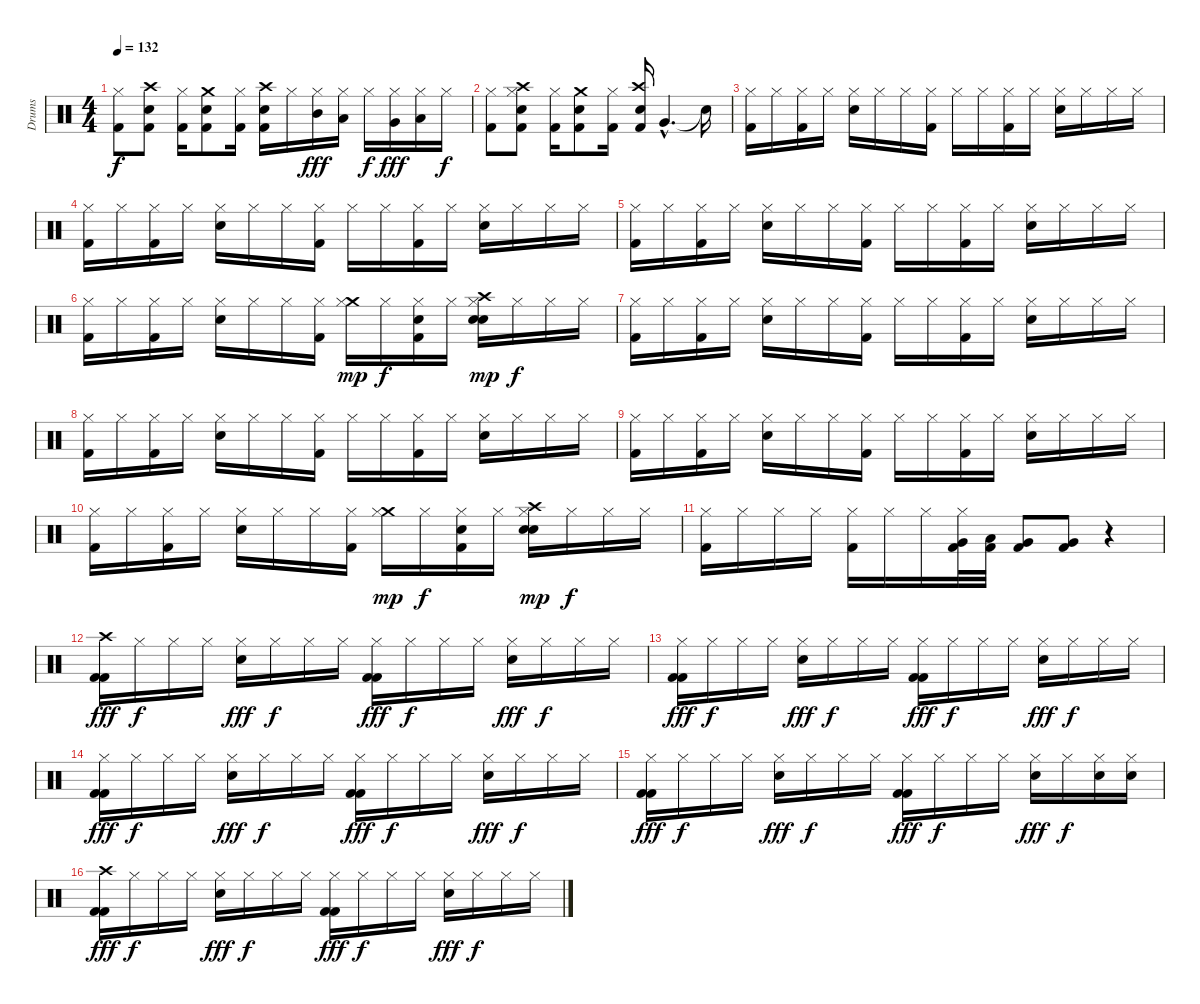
\track ("Drums" "Drums") {instrument percussion}
\staff {score}
\articulation defaults
\ts (4 4)
\tempo 132
\clef neutral
\ks c
("Kick (hit) 2" "Hi-Hat (closed)").8{dy f} ("Kick (hit) 2" "Crash high (hit)" "Snare (hit) 2").8 ("Kick (hit) 2" "Hi-Hat (closed)").16 ("Kick (hit) 2" "Crash medium (hit)" "Snare (hit) 2").8 ("Kick (hit) 2" "Hi-Hat (closed)").16 ("Kick (hit) 2" "Crash high (hit)" "Snare (hit) 2").16 "Hi-Hat (closed)".16 ("Mid Tom (hit)" "Hi-Hat (closed)").16{dy fff} ("Low Tom (hit)" "Hi-Hat (closed)").16 "Hi-Hat (closed)".16{dy f} ("Very Low Tom (hit)" "Hi-Hat (closed)").16{dy fff} ("Low Floor Tom (hit)" "Hi-Hat (closed)").16 "Hi-Hat (closed)".16{dy f} |
("Kick (hit) 2" "Hi-Hat (closed)").8 ("Kick (hit) 2" "Crash high (hit)" "Hi-Hat (closed)" "Snare (hit) 2").8 ("Kick (hit) 2" "Hi-Hat (closed)").16 ("Kick (hit) 2" "Crash medium (hit)" "Snare (hit) 2").8 ("Kick (hit) 2" "Hi-Hat (closed)").16 ("Kick (hit) 2" "Crash high (hit)" "Snare (hit) 2").16 "Very Low Tom (hit)"{hac}.4{d} "Snare (hit)"{t}.16 |
("Kick (hit) 2" "Hi-Hat (closed)").16 "Hi-Hat (closed)".16 ("Kick (hit) 2" "Hi-Hat (closed)").16 "Hi-Hat (closed)".16 ("Hi-Hat (closed)" "Snare (hit) 2").16 "Hi-Hat (closed)".16 "Hi-Hat (closed)".16 ("Kick (hit) 2" "Hi-Hat (closed)").16 "Hi-Hat (closed)".16 "Hi-Hat (closed)".16 ("Kick (hit) 2" "Hi-Hat (closed)").16 "Hi-Hat (closed)".16 ("Hi-Hat (closed)" "Snare (hit) 2").16 "Hi-Hat (closed)".16 "Hi-Hat (closed)".16 "Hi-Hat (closed)".16 |
("Kick (hit) 2" "Hi-Hat (closed)").16 "Hi-Hat (closed)".16 ("Kick (hit) 2" "Hi-Hat (closed)").16 "Hi-Hat (closed)".16 ("Hi-Hat (closed)" "Snare (hit) 2").16 "Hi-Hat (closed)".16 "Hi-Hat (closed)".16 ("Kick (hit) 2" "Hi-Hat (closed)").16 "Hi-Hat (closed)".16 "Hi-Hat (closed)".16 ("Kick (hit) 2" "Hi-Hat (closed)").16 "Hi-Hat (closed)".16 ("Hi-Hat (closed)" "Snare (hit) 2").16 "Hi-Hat (closed)".16 "Hi-Hat (closed)".16 "Hi-Hat (closed)".16 |
("Kick (hit) 2" "Hi-Hat (closed)").16 "Hi-Hat (closed)".16 ("Kick (hit) 2" "Hi-Hat (closed)").16 "Hi-Hat (closed)".16 ("Hi-Hat (closed)" "Snare (hit) 2").16 "Hi-Hat (closed)".16 "Hi-Hat (closed)".16 ("Kick (hit) 2" "Hi-Hat (closed)").16 "Hi-Hat (closed)".16 "Hi-Hat (closed)".16 ("Kick (hit) 2" "Hi-Hat (closed)").16 "Hi-Hat (closed)".16 ("Hi-Hat (closed)" "Snare (hit) 2").16 "Hi-Hat (closed)".16 "Hi-Hat (closed)".16 "Hi-Hat (closed)".16 |
("Kick (hit) 2" "Hi-Hat (closed)").16 "Hi-Hat (closed)".16 ("Kick (hit) 2" "Hi-Hat (closed)").16 "Hi-Hat (closed)".16 ("Hi-Hat (closed)" "Snare (hit) 2").16 "Hi-Hat (closed)".16 "Hi-Hat (closed)".16 ("Kick (hit) 2" "Hi-Hat (closed)").16 ("Crash medium (hit)" "Hi-Hat (closed)").16{dy mp} "Hi-Hat (closed)".16{dy f} ("Kick (hit) 2" "Hi-Hat (closed)" "Hand Clap (hit)").16 "Hi-Hat (closed)".16 ("Crash high (hit)" "Hi-Hat (closed)" "Snare (hit) 2" "Hand Clap (hit)").16{dy mp} "Hi-Hat (closed)".16{dy f} "Hi-Hat (closed)".16 "Hi-Hat (closed)".16 |
("Kick (hit) 2" "Hi-Hat (closed)").16 "Hi-Hat (closed)".16 ("Kick (hit) 2" "Hi-Hat (closed)").16 "Hi-Hat (closed)".16 ("Hi-Hat (closed)" "Snare (hit) 2").16 "Hi-Hat (closed)".16 "Hi-Hat (closed)".16 ("Kick (hit) 2" "Hi-Hat (closed)").16 "Hi-Hat (closed)".16 "Hi-Hat (closed)".16 ("Kick (hit) 2" "Hi-Hat (closed)").16 "Hi-Hat (closed)".16 ("Hi-Hat (closed)" "Snare (hit) 2").16 "Hi-Hat (closed)".16 "Hi-Hat (closed)".16 "Hi-Hat (closed)".16 |
("Kick (hit) 2" "Hi-Hat (closed)").16 "Hi-Hat (closed)".16 ("Kick (hit) 2" "Hi-Hat (closed)").16 "Hi-Hat (closed)".16 ("Hi-Hat (closed)" "Snare (hit) 2").16 "Hi-Hat (closed)".16 "Hi-Hat (closed)".16 ("Kick (hit) 2" "Hi-Hat (closed)").16 "Hi-Hat (closed)".16 "Hi-Hat (closed)".16 ("Kick (hit) 2" "Hi-Hat (closed)").16 "Hi-Hat (closed)".16 ("Hi-Hat (closed)" "Snare (hit) 2").16 "Hi-Hat (closed)".16 "Hi-Hat (closed)".16 "Hi-Hat (closed)".16 |
("Kick (hit) 2" "Hi-Hat (closed)").16 "Hi-Hat (closed)".16 ("Kick (hit) 2" "Hi-Hat (closed)").16 "Hi-Hat (closed)".16 ("Hi-Hat (closed)" "Snare (hit) 2").16 "Hi-Hat (closed)".16 "Hi-Hat (closed)".16 ("Kick (hit) 2" "Hi-Hat (closed)").16 "Hi-Hat (closed)".16 "Hi-Hat (closed)".16 ("Kick (hit) 2" "Hi-Hat (closed)").16 "Hi-Hat (closed)".16 ("Hi-Hat (closed)" "Snare (hit) 2").16 "Hi-Hat (closed)".16 "Hi-Hat (closed)".16 "Hi-Hat (closed)".16 |
("Kick (hit) 2" "Hi-Hat (closed)").16 "Hi-Hat (closed)".16 ("Kick (hit) 2" "Hi-Hat (closed)").16 "Hi-Hat (closed)".16 ("Hi-Hat (closed)" "Snare (hit) 2").16 "Hi-Hat (closed)".16 "Hi-Hat (closed)".16 ("Kick (hit) 2" "Hi-Hat (closed)").16 ("Crash medium (hit)" "Hi-Hat (closed)").16{dy mp} "Hi-Hat (closed)".16{dy f} ("Kick (hit) 2" "Hi-Hat (closed)" "Hand Clap (hit)").16 "Hi-Hat (closed)".16 ("Crash high (hit)" "Hi-Hat (closed)" "Snare (hit) 2" "Hand Clap (hit)").16{dy mp} "Hi-Hat (closed)".16{dy f} "Hi-Hat (closed)".16 "Hi-Hat (closed)".16 |
("Kick (hit) 2" "Hi-Hat (closed)").16 "Hi-Hat (closed)".16 "Hi-Hat (closed)".16 "Hi-Hat (closed)".16 ("Kick (hit) 2" "Hi-Hat (closed)").16 "Hi-Hat (closed)".16 "Hi-Hat (closed)".16 ("Kick (hit) 2" "Very Low Tom (hit)" "Hi-Hat (closed)").32 ("Kick (hit) 2" "Low Floor Tom (hit)").32 ("Kick (hit) 2" "Very Low Tom (hit)").8 ("Kick (hit) 2" "Very Low Tom (hit)").8 r.4 |
("Kick (hit) 2" "Kick (hit) 2" "Crash high (hit)").16{dy fff} "Hi-Hat (closed)".16{dy f} "Hi-Hat (closed)".16 "Hi-Hat (closed)".16 ("Hi-Hat (closed)" "Snare (hit) 2").16{dy fff} "Hi-Hat (closed)".16{dy f} "Hi-Hat (closed)".16 "Hi-Hat (closed)".16 ("Kick (hit) 2" "Kick (hit) 2" "Hi-Hat (closed)").16{dy fff} "Hi-Hat (closed)".16{dy f} "Hi-Hat (closed)".16 "Hi-Hat (closed)".16 ("Hi-Hat (closed)" "Snare (hit) 2").16{dy fff} "Hi-Hat (closed)".16{dy f} "Hi-Hat (closed)".16 "Hi-Hat (closed)".16 |
("Kick (hit) 2" "Kick (hit) 2" "Hi-Hat (closed)").16{dy fff} "Hi-Hat (closed)".16{dy f} "Hi-Hat (closed)".16 "Hi-Hat (closed)".16 ("Hi-Hat (closed)" "Snare (hit) 2").16{dy fff} "Hi-Hat (closed)".16{dy f} "Hi-Hat (closed)".16 "Hi-Hat (closed)".16 ("Kick (hit) 2" "Kick (hit) 2" "Hi-Hat (closed)").16{dy fff} "Hi-Hat (closed)".16{dy f} "Hi-Hat (closed)".16 "Hi-Hat (closed)".16 ("Hi-Hat (closed)" "Snare (hit) 2").16{dy fff} "Hi-Hat (closed)".16{dy f} "Hi-Hat (closed)".16 "Hi-Hat (closed)".16 |
("Kick (hit) 2" "Kick (hit) 2" "Hi-Hat (closed)").16{dy fff} "Hi-Hat (closed)".16{dy f} "Hi-Hat (closed)".16 "Hi-Hat (closed)".16 ("Hi-Hat (closed)" "Snare (hit) 2").16{dy fff} "Hi-Hat (closed)".16{dy f} "Hi-Hat (closed)".16 "Hi-Hat (closed)".16 ("Kick (hit) 2" "Kick (hit) 2" "Hi-Hat (closed)").16{dy fff} "Hi-Hat (closed)".16{dy f} "Hi-Hat (closed)".16 "Hi-Hat (closed)".16 ("Hi-Hat (closed)" "Snare (hit) 2").16{dy fff} "Hi-Hat (closed)".16{dy f} "Hi-Hat (closed)".16 "Hi-Hat (closed)".16 |
("Kick (hit) 2" "Kick (hit) 2" "Hi-Hat (closed)").16{dy fff} "Hi-Hat (closed)".16{dy f} "Hi-Hat (closed)".16 "Hi-Hat (closed)".16 ("Hi-Hat (closed)" "Snare (hit) 2").16{dy fff} "Hi-Hat (closed)".16{dy f} "Hi-Hat (closed)".16 "Hi-Hat (closed)".16 ("Kick (hit) 2" "Kick (hit) 2" "Hi-Hat (closed)").16{dy fff} "Hi-Hat (closed)".16{dy f} "Hi-Hat (closed)".16 "Hi-Hat (closed)".16 ("Hi-Hat (closed)" "Snare (hit) 2").16{dy fff} "Hi-Hat (closed)".16{dy f} ("Hi-Hat (closed)" "Snare (hit) 2").16 ("Hi-Hat (closed)" "Snare (hit) 2").16 |
("Kick (hit) 2" "Kick (hit) 2" "Crash high (hit)").16{dy fff} "Hi-Hat (closed)".16{dy f} "Hi-Hat (closed)".16 "Hi-Hat (closed)".16 ("Hi-Hat (closed)" "Snare (hit) 2").16{dy fff} "Hi-Hat (closed)".16{dy f} "Hi-Hat (closed)".16 "Hi-Hat (closed)".16 ("Kick (hit) 2" "Kick (hit) 2" "Hi-Hat (closed)").16{dy fff} "Hi-Hat (closed)".16{dy f} "Hi-Hat (closed)".16 "Hi-Hat (closed)".16 ("Hi-Hat (closed)" "Snare (hit) 2").16{dy fff} "Hi-Hat (closed)".16{dy f} "Hi-Hat (closed)".16 "Hi-Hat (closed)".16
